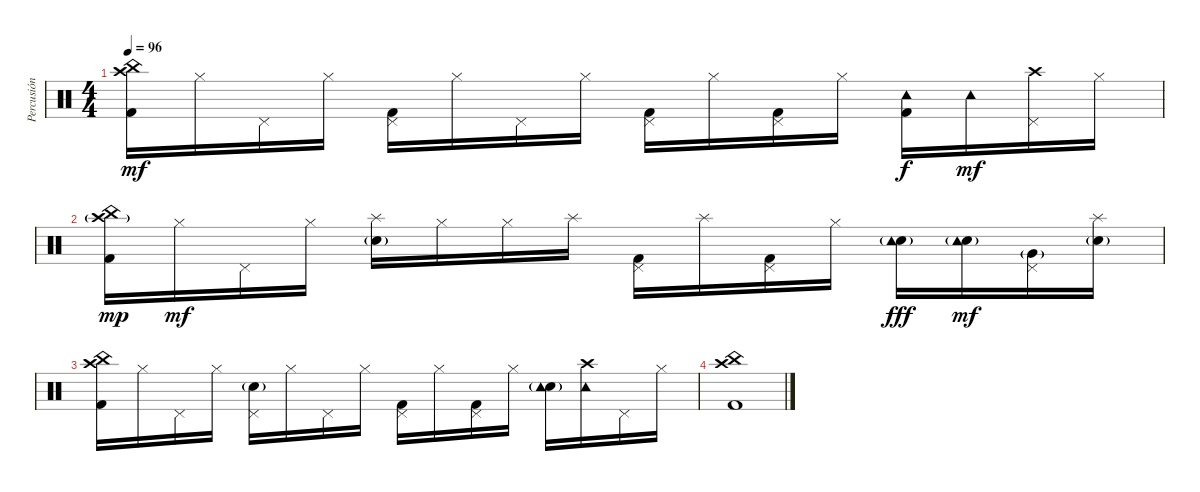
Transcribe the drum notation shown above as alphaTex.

\track ("Percusión" "Percusión") {instrument percussion}
\staff {score}
\articulation defaults
\ts (4 4)
\tempo 96
\clef neutral
\ks c
("China (hit)" "Kick (hit) 2" "Crash high (hit)").16{dy mf} "Hi-Hat (closed)".16 "Pedal Hi-Hat (hit)".16 "Hi-Hat (closed)".16 ("Kick (hit) 2" "Pedal Hi-Hat (hit)").16 "Hi-Hat (closed)".16 "Pedal Hi-Hat (hit)".16 "Hi-Hat (closed)".16 ("Kick (hit) 2" "Pedal Hi-Hat (hit)").16 "Hi-Hat (closed)".16 ("Kick (hit) 2" "Pedal Hi-Hat (hit)").16 "Hi-Hat (closed)".16 ("Kick (hit) 2" "Tambourine (hit)").16{dy f} "Tambourine (hit)".16{dy mf} ("Crash high (hit)" "Pedal Hi-Hat (hit)").16 "Hi-Hat (closed)".16 |
("China (hit)" "Kick (hit) 2" "Crash high (hit)"{g}).16{dy mp} "Hi-Hat (closed)".16{dy mf} "Pedal Hi-Hat (hit)".16 "Hi-Hat (closed)".16 ("Electric Snare (hit)"{g} "Splash (hit)").16 "Hi-Hat (closed)".16 "Hi-Hat (closed)".16 "Splash (hit)".16 ("Kick (hit) 2" "Pedal Hi-Hat (hit)").16 "Splash (hit)".16 ("Kick (hit) 2" "Pedal Hi-Hat (hit)").16 "Hi-Hat (closed)".16 ("Electric Snare (hit)"{g} "Tambourine (hit)").16{dy fff} ("Electric Snare (hit)"{g} "Tambourine (hit)").16{dy mf} ("Very Low Tom (hit)"{g} "Pedal Hi-Hat (hit)").16 ("Electric Snare (hit)"{g} "Splash (hit)").16 |
("China (hit)" "Kick (hit) 2" "Crash high (hit)").16 "Hi-Hat (closed)".16 "Pedal Hi-Hat (hit)".16 "Hi-Hat (closed)".16 ("Electric Snare (hit)"{g} "Pedal Hi-Hat (hit)").16 "Hi-Hat (closed)".16 "Pedal Hi-Hat (hit)".16 "Hi-Hat (closed)".16 ("Kick (hit) 2" "Pedal Hi-Hat (hit)").16 "Hi-Hat (closed)".16 ("Kick (hit) 2" "Pedal Hi-Hat (hit)").16 "Hi-Hat (closed)".16 ("Electric Snare (hit)"{g} "Tambourine (hit)").16 ("Crash high (hit)" "Tambourine (hit)").16 "Pedal Hi-Hat (hit)".16 "Hi-Hat (closed)".16 |
("China (hit)" "Kick (hit) 2" "Crash high (hit)").1
